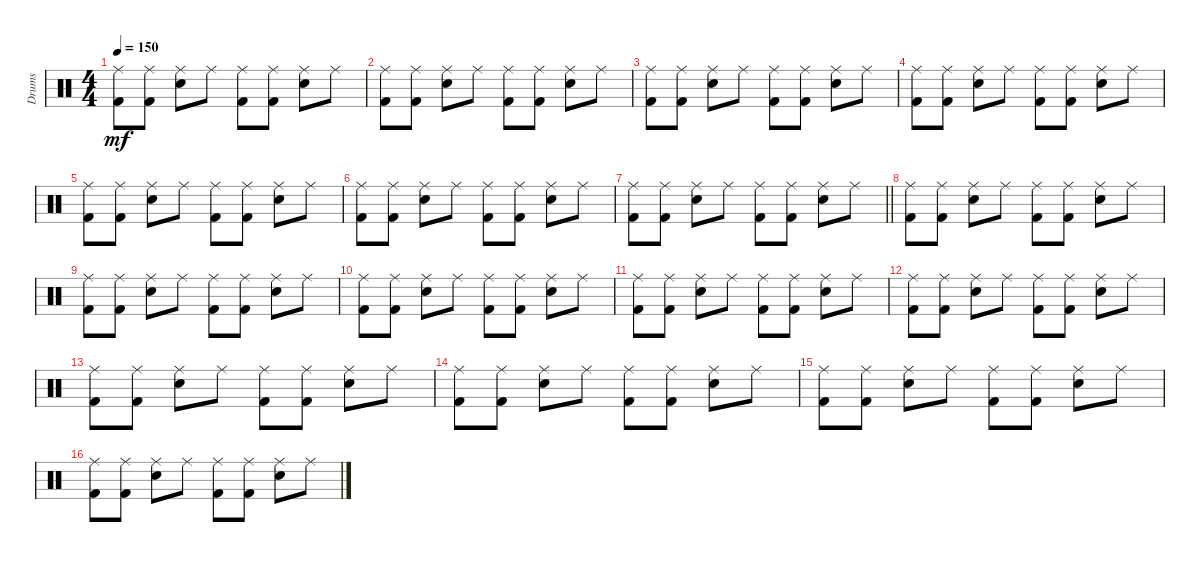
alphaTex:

\track ("Drums" "Drums") {instrument percussion}
\staff {score}
\articulation defaults
\ts (4 4)
\tempo 150
\clef neutral
\ks c
("Ride (middle)" "Kick (hit) 2").8{dy mf} ("Ride (middle)" "Kick (hit) 2").8 ("Ride (middle)" "Electric Snare (hit)").8 "Ride (middle)".8 ("Ride (middle)" "Kick (hit) 2").8 ("Ride (middle)" "Kick (hit) 2").8 ("Ride (middle)" "Electric Snare (hit)").8 "Ride (middle)".8 |
("Ride (middle)" "Kick (hit) 2").8 ("Ride (middle)" "Kick (hit) 2").8 ("Ride (middle)" "Electric Snare (hit)").8 "Ride (middle)".8 ("Ride (middle)" "Kick (hit) 2").8 ("Ride (middle)" "Kick (hit) 2").8 ("Ride (middle)" "Electric Snare (hit)").8 "Ride (middle)".8 |
("Ride (middle)" "Kick (hit) 2").8 ("Ride (middle)" "Kick (hit) 2").8 ("Ride (middle)" "Electric Snare (hit)").8 "Ride (middle)".8 ("Ride (middle)" "Kick (hit) 2").8 ("Ride (middle)" "Kick (hit) 2").8 ("Ride (middle)" "Electric Snare (hit)").8 "Ride (middle)".8 |
("Ride (middle)" "Kick (hit) 2").8 ("Ride (middle)" "Kick (hit) 2").8 ("Ride (middle)" "Electric Snare (hit)").8 "Ride (middle)".8 ("Ride (middle)" "Kick (hit) 2").8 ("Ride (middle)" "Kick (hit) 2").8 ("Ride (middle)" "Electric Snare (hit)").8 "Ride (middle)".8 |
("Ride (middle)" "Kick (hit) 2").8 ("Ride (middle)" "Kick (hit) 2").8 ("Ride (middle)" "Electric Snare (hit)").8 "Ride (middle)".8 ("Ride (middle)" "Kick (hit) 2").8 ("Ride (middle)" "Kick (hit) 2").8 ("Ride (middle)" "Electric Snare (hit)").8 "Ride (middle)".8 |
("Ride (middle)" "Kick (hit) 2").8 ("Ride (middle)" "Kick (hit) 2").8 ("Ride (middle)" "Electric Snare (hit)").8 "Ride (middle)".8 ("Ride (middle)" "Kick (hit) 2").8 ("Ride (middle)" "Kick (hit) 2").8 ("Ride (middle)" "Electric Snare (hit)").8 "Ride (middle)".8 |
\barLineRight lightlight
("Ride (middle)" "Kick (hit) 2").8 ("Ride (middle)" "Kick (hit) 2").8 ("Ride (middle)" "Electric Snare (hit)").8 "Ride (middle)".8 ("Ride (middle)" "Kick (hit) 2").8 ("Ride (middle)" "Kick (hit) 2").8 ("Ride (middle)" "Electric Snare (hit)").8 "Ride (middle)".8 |
("Ride (middle)" "Kick (hit) 2").8 ("Ride (middle)" "Kick (hit) 2").8 ("Ride (middle)" "Electric Snare (hit)").8 "Ride (middle)".8 ("Ride (middle)" "Kick (hit) 2").8 ("Ride (middle)" "Kick (hit) 2").8 ("Ride (middle)" "Electric Snare (hit)").8 "Ride (middle)".8 |
("Ride (middle)" "Kick (hit) 2").8 ("Ride (middle)" "Kick (hit) 2").8 ("Ride (middle)" "Electric Snare (hit)").8 "Ride (middle)".8 ("Ride (middle)" "Kick (hit) 2").8 ("Ride (middle)" "Kick (hit) 2").8 ("Ride (middle)" "Electric Snare (hit)").8 "Ride (middle)".8 |
("Ride (middle)" "Kick (hit) 2").8 ("Ride (middle)" "Kick (hit) 2").8 ("Ride (middle)" "Electric Snare (hit)").8 "Ride (middle)".8 ("Ride (middle)" "Kick (hit) 2").8 ("Ride (middle)" "Kick (hit) 2").8 ("Ride (middle)" "Electric Snare (hit)").8 "Ride (middle)".8 |
("Ride (middle)" "Kick (hit) 2").8 ("Ride (middle)" "Kick (hit) 2").8 ("Ride (middle)" "Electric Snare (hit)").8 "Ride (middle)".8 ("Ride (middle)" "Kick (hit) 2").8 ("Ride (middle)" "Kick (hit) 2").8 ("Ride (middle)" "Electric Snare (hit)").8 "Ride (middle)".8 |
("Ride (middle)" "Kick (hit) 2").8 ("Ride (middle)" "Kick (hit) 2").8 ("Ride (middle)" "Electric Snare (hit)").8 "Ride (middle)".8 ("Ride (middle)" "Kick (hit) 2").8 ("Ride (middle)" "Kick (hit) 2").8 ("Ride (middle)" "Electric Snare (hit)").8 "Ride (middle)".8 |
("Ride (middle)" "Kick (hit) 2").8 ("Ride (middle)" "Kick (hit) 2").8 ("Ride (middle)" "Electric Snare (hit)").8 "Ride (middle)".8 ("Ride (middle)" "Kick (hit) 2").8 ("Ride (middle)" "Kick (hit) 2").8 ("Ride (middle)" "Electric Snare (hit)").8 "Ride (middle)".8 |
("Ride (middle)" "Kick (hit) 2").8 ("Ride (middle)" "Kick (hit) 2").8 ("Ride (middle)" "Electric Snare (hit)").8 "Ride (middle)".8 ("Ride (middle)" "Kick (hit) 2").8 ("Ride (middle)" "Kick (hit) 2").8 ("Ride (middle)" "Electric Snare (hit)").8 "Ride (middle)".8 |
("Ride (middle)" "Kick (hit) 2").8 ("Ride (middle)" "Kick (hit) 2").8 ("Ride (middle)" "Electric Snare (hit)").8 "Ride (middle)".8 ("Ride (middle)" "Kick (hit) 2").8 ("Ride (middle)" "Kick (hit) 2").8 ("Ride (middle)" "Electric Snare (hit)").8 "Ride (middle)".8 |
("Ride (middle)" "Kick (hit) 2").8 ("Ride (middle)" "Kick (hit) 2").8 ("Ride (middle)" "Electric Snare (hit)").8 "Ride (middle)".8 ("Ride (middle)" "Kick (hit) 2").8 ("Ride (middle)" "Kick (hit) 2").8 ("Ride (middle)" "Electric Snare (hit)").8 "Ride (middle)".8
